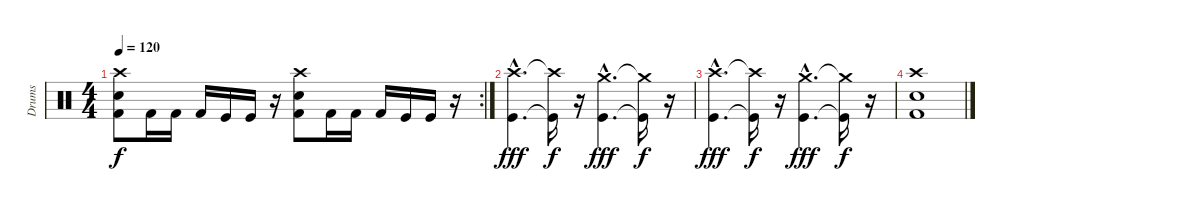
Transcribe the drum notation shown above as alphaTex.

\track ("Drums" "Drums") {instrument percussion}
\staff {score}
\articulation defaults
\rc 2
\ts (4 4)
\tempo 120
\clef neutral
\ks c
("Crash high (hit)" "Snare (hit) 2" "Kick (hit) 2").8{dy f} "Kick (hit) 2".16 "Kick (hit) 2".16 "Kick (hit) 2".16 "Kick (hit)".16 "Kick (hit)".16 r.16 ("Crash high (hit)" "Snare (hit) 2" "Kick (hit) 2").8 "Kick (hit) 2".16 "Kick (hit) 2".16 "Kick (hit) 2".16 "Kick (hit)".16 "Kick (hit)".16 r.16 |
("Crash high (hit)"{hac} "Kick (hit)"{hac}).4{d dy fff} ("Crash high (hit)"{t} "Kick (hit)"{t}).16{dy f} r.16 ("Crash medium (hit)"{hac} "Kick (hit)"{hac}).4{d dy fff} ("Crash medium (hit)"{t} "Kick (hit)"{t}).16{dy f} r.16 |
("Crash high (hit)"{hac} "Kick (hit)"{hac}).4{d dy fff} ("Crash high (hit)"{t} "Kick (hit)"{t}).16{dy f} r.16 ("Crash medium (hit)"{hac} "Kick (hit)"{hac}).4{d dy fff} ("Crash medium (hit)"{t} "Kick (hit)"{t}).16{dy f} r.16 |
("Crash high (hit)" "Snare (hit) 2" "Kick (hit) 2").1
